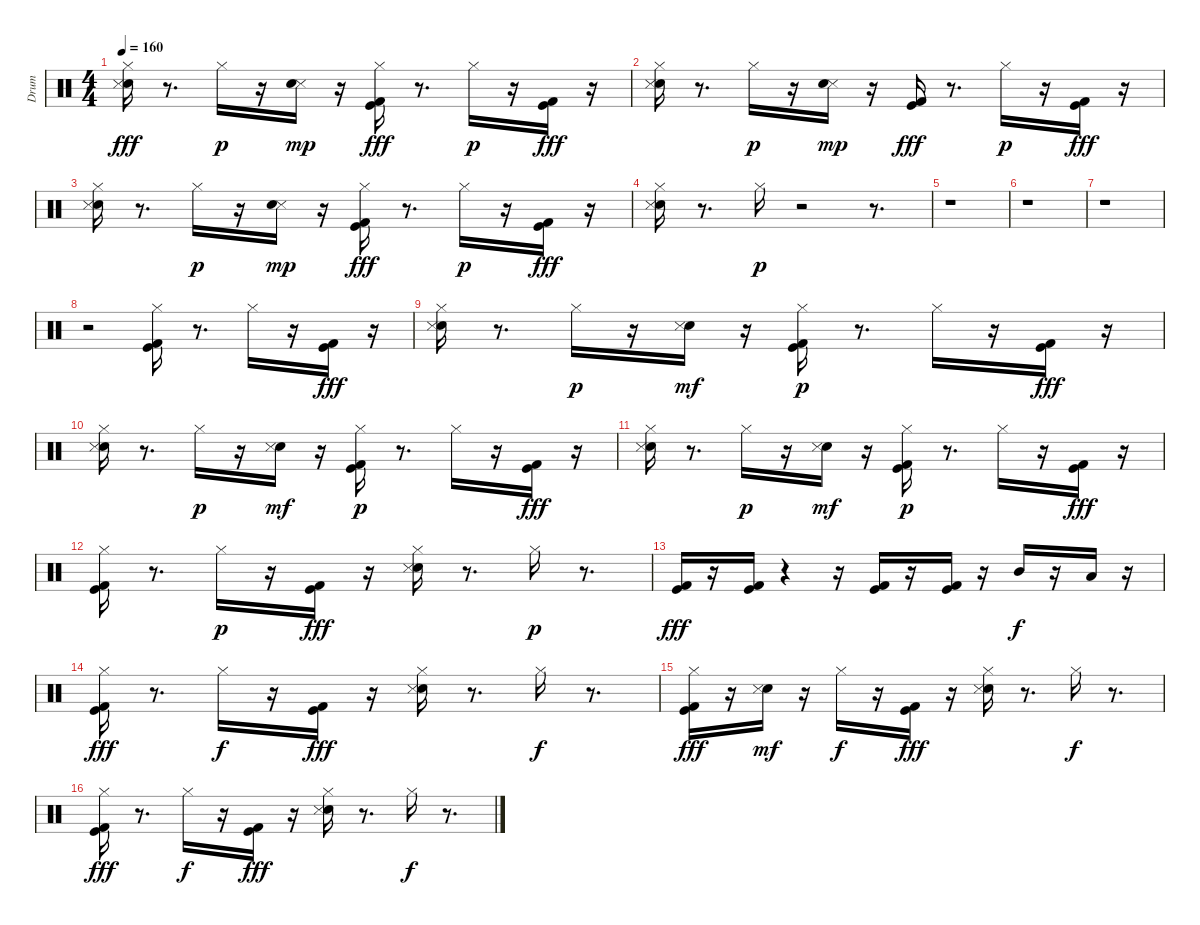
\track ("Drum" "Drum") {instrument percussion}
\staff {score}
\articulation defaults
\ts (4 4)
\tempo 160
\clef neutral
\ks c
("Hi-Hat (closed)" "Hand Clap (hit)" "Snare (side stick) 3").16{dy fff} r.8{d} "Hi-Hat (closed)".16{dy p} r.16 ("Snare (side stick) 3" "Hand Clap (hit)").16{dy mp} r.16 ("Hi-Hat (closed)" "Kick (hit)" "Kick (hit) 2").16{dy fff} r.8{d} "Hi-Hat (closed)".16{dy p} r.16 ("Kick (hit)" "Kick (hit) 2").16{dy fff} r.16 |
("Hi-Hat (closed)" "Hand Clap (hit)" "Snare (side stick) 3").16 r.8{d} "Hi-Hat (closed)".16{dy p} r.16 ("Snare (side stick) 3" "Hand Clap (hit)").16{dy mp} r.16 ("Kick (hit) 2" "Kick (hit)").16{dy fff} r.8{d} "Hi-Hat (closed)".16{dy p} r.16 ("Kick (hit)" "Kick (hit) 2").16{dy fff} r.16 |
("Hi-Hat (closed)" "Hand Clap (hit)" "Snare (side stick) 3").16 r.8{d} "Hi-Hat (closed)".16{dy p} r.16 ("Snare (side stick) 3" "Hand Clap (hit)").16{dy mp} r.16 ("Hi-Hat (closed)" "Kick (hit)" "Kick (hit) 2").16{dy fff} r.8{d} "Hi-Hat (closed)".16{dy p} r.16 ("Kick (hit)" "Kick (hit) 2").16{dy fff} r.16 |
("Hi-Hat (closed)" "Hand Clap (hit)" "Snare (side stick) 3").16 r.8{d} "Hi-Hat (closed)".16{dy p} r.2 r.8{d} |
r.1 |
r.1 |
r.1 |
r.2 ("Kick (hit)" "Kick (hit) 2" "Hi-Hat (closed)").16 r.8{d} "Hi-Hat (closed)".16 r.16 ("Kick (hit)" "Kick (hit) 2").16{dy fff} r.16 |
("Hi-Hat (closed)" "Hand Clap (hit)" "Snare (side stick) 3").16 r.8{d} "Hi-Hat (closed)".16{dy p} r.16 ("Hand Clap (hit)" "Snare (side stick) 3").16{dy mf} r.16 ("Kick (hit) 2" "Kick (hit)" "Hi-Hat (closed)").16{dy p} r.8{d} "Hi-Hat (closed)".16 r.16 ("Kick (hit)" "Kick (hit) 2").16{dy fff} r.16 |
("Hi-Hat (closed)" "Hand Clap (hit)" "Snare (side stick) 3").16 r.8{d} "Hi-Hat (closed)".16{dy p} r.16 ("Hand Clap (hit)" "Snare (side stick) 3").16{dy mf} r.16 ("Kick (hit)" "Kick (hit) 2" "Hi-Hat (closed)").16{dy p} r.8{d} "Hi-Hat (closed)".16 r.16 ("Kick (hit)" "Kick (hit) 2").16{dy fff} r.16 |
("Hi-Hat (closed)" "Hand Clap (hit)" "Snare (side stick) 3").16 r.8{d} "Hi-Hat (closed)".16{dy p} r.16 ("Hand Clap (hit)" "Snare (side stick) 3").16{dy mf} r.16 ("Kick (hit) 2" "Kick (hit)" "Hi-Hat (closed)").16{dy p} r.8{d} "Hi-Hat (closed)".16 r.16 ("Kick (hit)" "Kick (hit) 2").16{dy fff} r.16 |
("Hi-Hat (closed)" "Kick (hit)" "Kick (hit) 2").16 r.8{d} "Hi-Hat (closed)".16{dy p} r.16 ("Kick (hit) 2" "Kick (hit)").16{dy fff} r.16 ("Hi-Hat (closed)" "Hand Clap (hit)" "Snare (side stick) 3").16 r.8{d} "Hi-Hat (closed)".16{dy p} r.8{d} |
("Kick (hit)" "Kick (hit) 2").16{dy fff} r.16 ("Kick (hit)" "Kick (hit) 2").16 r.4 r.16 ("Kick (hit) 2" "Kick (hit)").16 r.16 ("Kick (hit) 2" "Kick (hit)").16 r.16 "Mid Tom (hit)".16{dy f} r.16 "Low Tom (hit)".16 r.16 |
("Kick (hit)" "Kick (hit) 2" "Hi-Hat (closed)").16{dy fff} r.8{d} "Hi-Hat (closed)".16{dy f} r.16 ("Kick (hit)" "Kick (hit) 2").16{dy fff} r.16 ("Hi-Hat (closed)" "Hand Clap (hit)" "Snare (side stick) 3").16 r.8{d} "Hi-Hat (closed)".16{dy f} r.8{d} |
("Kick (hit)" "Kick (hit) 2" "Hi-Hat (closed)").16{dy fff} r.16 ("Hand Clap (hit)" "Snare (side stick) 3").16{dy mf} r.16 "Hi-Hat (closed)".16{dy f} r.16 ("Kick (hit)" "Kick (hit) 2").16{dy fff} r.16 ("Hi-Hat (closed)" "Hand Clap (hit)" "Snare (side stick) 3").16 r.8{d} "Hi-Hat (closed)".16{dy f} r.8{d} |
("Kick (hit)" "Kick (hit) 2" "Hi-Hat (closed)").16{dy fff} r.8{d} "Hi-Hat (closed)".16{dy f} r.16 ("Kick (hit)" "Kick (hit) 2").16{dy fff} r.16 ("Hi-Hat (closed)" "Hand Clap (hit)" "Snare (side stick) 3").16 r.8{d} "Hi-Hat (closed)".16{dy f} r.8{d}
